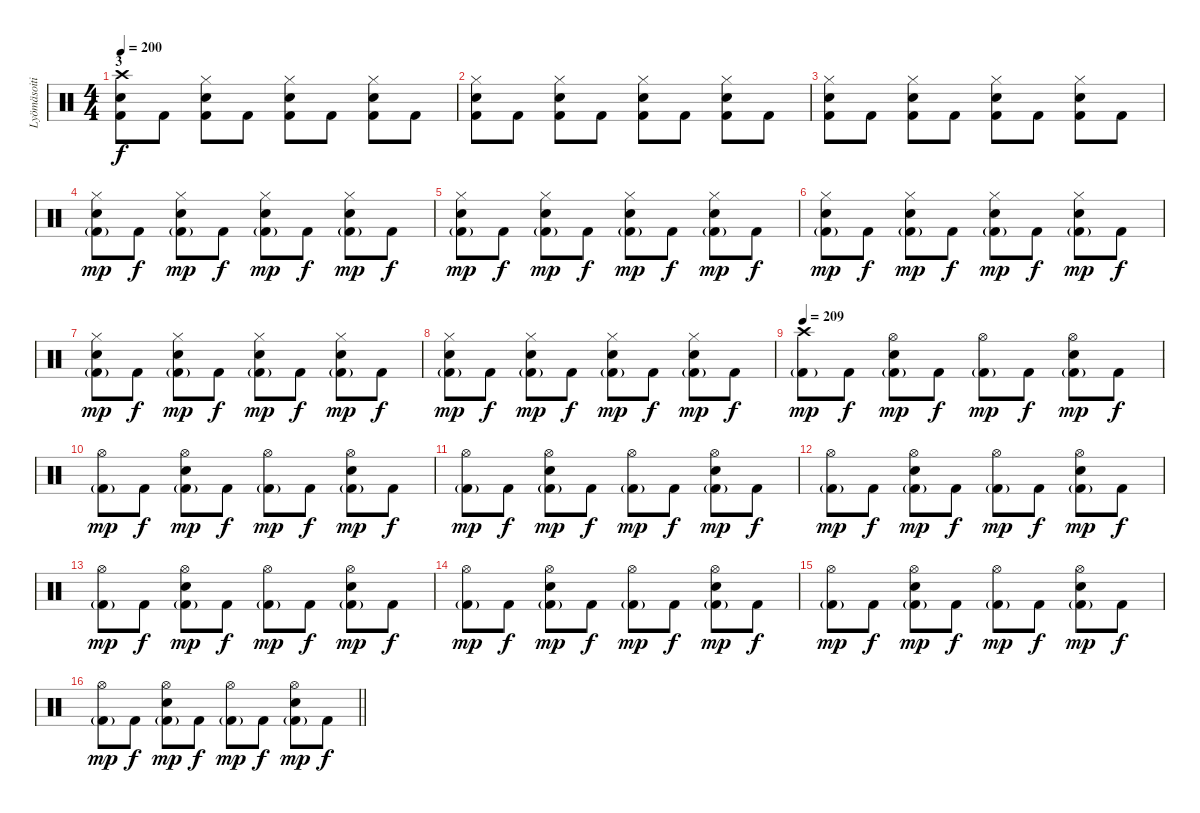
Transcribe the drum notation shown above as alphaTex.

\track ("Lyömäsoitin" "Lyömäsoiti") {instrument percussion}
\staff {score}
\articulation defaults
\ts (4 4)
\section ("" "3")
\tempo 200
\clef neutral
\ks c
("Crash high (hit)" "Snare (hit) 2" "Kick (hit) 2").8{dy f} "Kick (hit) 2".8 ("Hi-Hat (closed)" "Snare (hit) 2" "Kick (hit) 2").8 "Kick (hit) 2".8 ("Hi-Hat (closed)" "Snare (hit) 2" "Kick (hit) 2").8 "Kick (hit) 2".8 ("Hi-Hat (closed)" "Snare (hit) 2" "Kick (hit) 2").8 "Kick (hit) 2".8 |
("Hi-Hat (closed)" "Snare (hit) 2" "Kick (hit) 2").8 "Kick (hit) 2".8 ("Hi-Hat (closed)" "Snare (hit) 2" "Kick (hit) 2").8 "Kick (hit) 2".8 ("Hi-Hat (closed)" "Snare (hit) 2" "Kick (hit) 2").8 "Kick (hit) 2".8 ("Hi-Hat (closed)" "Snare (hit) 2" "Kick (hit) 2").8 "Kick (hit) 2".8 |
("Hi-Hat (closed)" "Snare (hit) 2" "Kick (hit) 2").8 "Kick (hit) 2".8 ("Hi-Hat (closed)" "Snare (hit) 2" "Kick (hit) 2").8 "Kick (hit) 2".8 ("Hi-Hat (closed)" "Snare (hit) 2" "Kick (hit) 2").8 "Kick (hit) 2".8 ("Hi-Hat (closed)" "Snare (hit) 2" "Kick (hit) 2").8 "Kick (hit) 2".8 |
("Hi-Hat (closed)" "Snare (hit) 2" "Kick (hit) 2"{g}).8{dy mp} "Kick (hit) 2".8{dy f} ("Hi-Hat (closed)" "Snare (hit) 2" "Kick (hit) 2"{g}).8{dy mp} "Kick (hit) 2".8{dy f} ("Hi-Hat (closed)" "Snare (hit) 2" "Kick (hit) 2"{g}).8{dy mp} "Kick (hit) 2".8{dy f} ("Hi-Hat (closed)" "Snare (hit) 2" "Kick (hit) 2"{g}).8{dy mp} "Kick (hit) 2".8{dy f} |
("Hi-Hat (closed)" "Snare (hit) 2" "Kick (hit) 2"{g}).8{dy mp} "Kick (hit) 2".8{dy f} ("Hi-Hat (closed)" "Snare (hit) 2" "Kick (hit) 2"{g}).8{dy mp} "Kick (hit) 2".8{dy f} ("Hi-Hat (closed)" "Snare (hit) 2" "Kick (hit) 2"{g}).8{dy mp} "Kick (hit) 2".8{dy f} ("Hi-Hat (closed)" "Snare (hit) 2" "Kick (hit) 2"{g}).8{dy mp} "Kick (hit) 2".8{dy f} |
("Hi-Hat (closed)" "Snare (hit) 2" "Kick (hit) 2"{g}).8{dy mp} "Kick (hit) 2".8{dy f} ("Hi-Hat (closed)" "Snare (hit) 2" "Kick (hit) 2"{g}).8{dy mp} "Kick (hit) 2".8{dy f} ("Hi-Hat (closed)" "Snare (hit) 2" "Kick (hit) 2"{g}).8{dy mp} "Kick (hit) 2".8{dy f} ("Hi-Hat (closed)" "Snare (hit) 2" "Kick (hit) 2"{g}).8{dy mp} "Kick (hit) 2".8{dy f} |
("Hi-Hat (closed)" "Snare (hit) 2" "Kick (hit) 2"{g}).8{dy mp} "Kick (hit) 2".8{dy f} ("Hi-Hat (closed)" "Snare (hit) 2" "Kick (hit) 2"{g}).8{dy mp} "Kick (hit) 2".8{dy f} ("Hi-Hat (closed)" "Snare (hit) 2" "Kick (hit) 2"{g}).8{dy mp} "Kick (hit) 2".8{dy f} ("Hi-Hat (closed)" "Snare (hit) 2" "Kick (hit) 2"{g}).8{dy mp} "Kick (hit) 2".8{dy f} |
("Hi-Hat (closed)" "Snare (hit) 2" "Kick (hit) 2"{g}).8{dy mp} "Kick (hit) 2".8{dy f} ("Hi-Hat (closed)" "Snare (hit) 2" "Kick (hit) 2"{g}).8{dy mp} "Kick (hit) 2".8{dy f} ("Hi-Hat (closed)" "Snare (hit) 2" "Kick (hit) 2"{g}).8{dy mp} "Kick (hit) 2".8{dy f} ("Hi-Hat (closed)" "Snare (hit) 2" "Kick (hit) 2"{g}).8{dy mp} "Kick (hit) 2".8{dy f} |
\tempo 209
("Crash high (hit)" "Kick (hit) 2"{g}).8{dy mp} "Kick (hit) 2".8{dy f} ("Hi-Hat (open)" "Snare (hit) 2" "Kick (hit) 2"{g}).8{dy mp} "Kick (hit) 2".8{dy f} ("Hi-Hat (open)" "Kick (hit) 2"{g}).8{dy mp} "Kick (hit) 2".8{dy f} ("Hi-Hat (open)" "Snare (hit) 2" "Kick (hit) 2"{g}).8{dy mp} "Kick (hit) 2".8{dy f} |
("Hi-Hat (open)" "Kick (hit) 2"{g}).8{dy mp} "Kick (hit) 2".8{dy f} ("Hi-Hat (open)" "Snare (hit) 2" "Kick (hit) 2"{g}).8{dy mp} "Kick (hit) 2".8{dy f} ("Hi-Hat (open)" "Kick (hit) 2"{g}).8{dy mp} "Kick (hit) 2".8{dy f} ("Hi-Hat (open)" "Snare (hit) 2" "Kick (hit) 2"{g}).8{dy mp} "Kick (hit) 2".8{dy f} |
("Hi-Hat (open)" "Kick (hit) 2"{g}).8{dy mp} "Kick (hit) 2".8{dy f} ("Hi-Hat (open)" "Snare (hit) 2" "Kick (hit) 2"{g}).8{dy mp} "Kick (hit) 2".8{dy f} ("Hi-Hat (open)" "Kick (hit) 2"{g}).8{dy mp} "Kick (hit) 2".8{dy f} ("Hi-Hat (open)" "Snare (hit) 2" "Kick (hit) 2"{g}).8{dy mp} "Kick (hit) 2".8{dy f} |
("Hi-Hat (open)" "Kick (hit) 2"{g}).8{dy mp} "Kick (hit) 2".8{dy f} ("Hi-Hat (open)" "Snare (hit) 2" "Kick (hit) 2"{g}).8{dy mp} "Kick (hit) 2".8{dy f} ("Hi-Hat (open)" "Kick (hit) 2"{g}).8{dy mp} "Kick (hit) 2".8{dy f} ("Hi-Hat (open)" "Snare (hit) 2" "Kick (hit) 2"{g}).8{dy mp} "Kick (hit) 2".8{dy f} |
("Hi-Hat (open)" "Kick (hit) 2"{g}).8{dy mp} "Kick (hit) 2".8{dy f} ("Hi-Hat (open)" "Snare (hit) 2" "Kick (hit) 2"{g}).8{dy mp} "Kick (hit) 2".8{dy f} ("Hi-Hat (open)" "Kick (hit) 2"{g}).8{dy mp} "Kick (hit) 2".8{dy f} ("Hi-Hat (open)" "Snare (hit) 2" "Kick (hit) 2"{g}).8{dy mp} "Kick (hit) 2".8{dy f} |
("Hi-Hat (open)" "Kick (hit) 2"{g}).8{dy mp} "Kick (hit) 2".8{dy f} ("Hi-Hat (open)" "Snare (hit) 2" "Kick (hit) 2"{g}).8{dy mp} "Kick (hit) 2".8{dy f} ("Hi-Hat (open)" "Kick (hit) 2"{g}).8{dy mp} "Kick (hit) 2".8{dy f} ("Hi-Hat (open)" "Snare (hit) 2" "Kick (hit) 2"{g}).8{dy mp} "Kick (hit) 2".8{dy f} |
("Hi-Hat (open)" "Kick (hit) 2"{g}).8{dy mp} "Kick (hit) 2".8{dy f} ("Hi-Hat (open)" "Snare (hit) 2" "Kick (hit) 2"{g}).8{dy mp} "Kick (hit) 2".8{dy f} ("Hi-Hat (open)" "Kick (hit) 2"{g}).8{dy mp} "Kick (hit) 2".8{dy f} ("Hi-Hat (open)" "Snare (hit) 2" "Kick (hit) 2"{g}).8{dy mp} "Kick (hit) 2".8{dy f} |
\barLineRight lightlight
("Hi-Hat (open)" "Kick (hit) 2"{g}).8{dy mp} "Kick (hit) 2".8{dy f} ("Hi-Hat (open)" "Snare (hit) 2" "Kick (hit) 2"{g}).8{dy mp} "Kick (hit) 2".8{dy f} ("Hi-Hat (open)" "Kick (hit) 2"{g}).8{dy mp} "Kick (hit) 2".8{dy f} ("Hi-Hat (open)" "Snare (hit) 2" "Kick (hit) 2"{g}).8{dy mp} "Kick (hit) 2".8{dy f}
